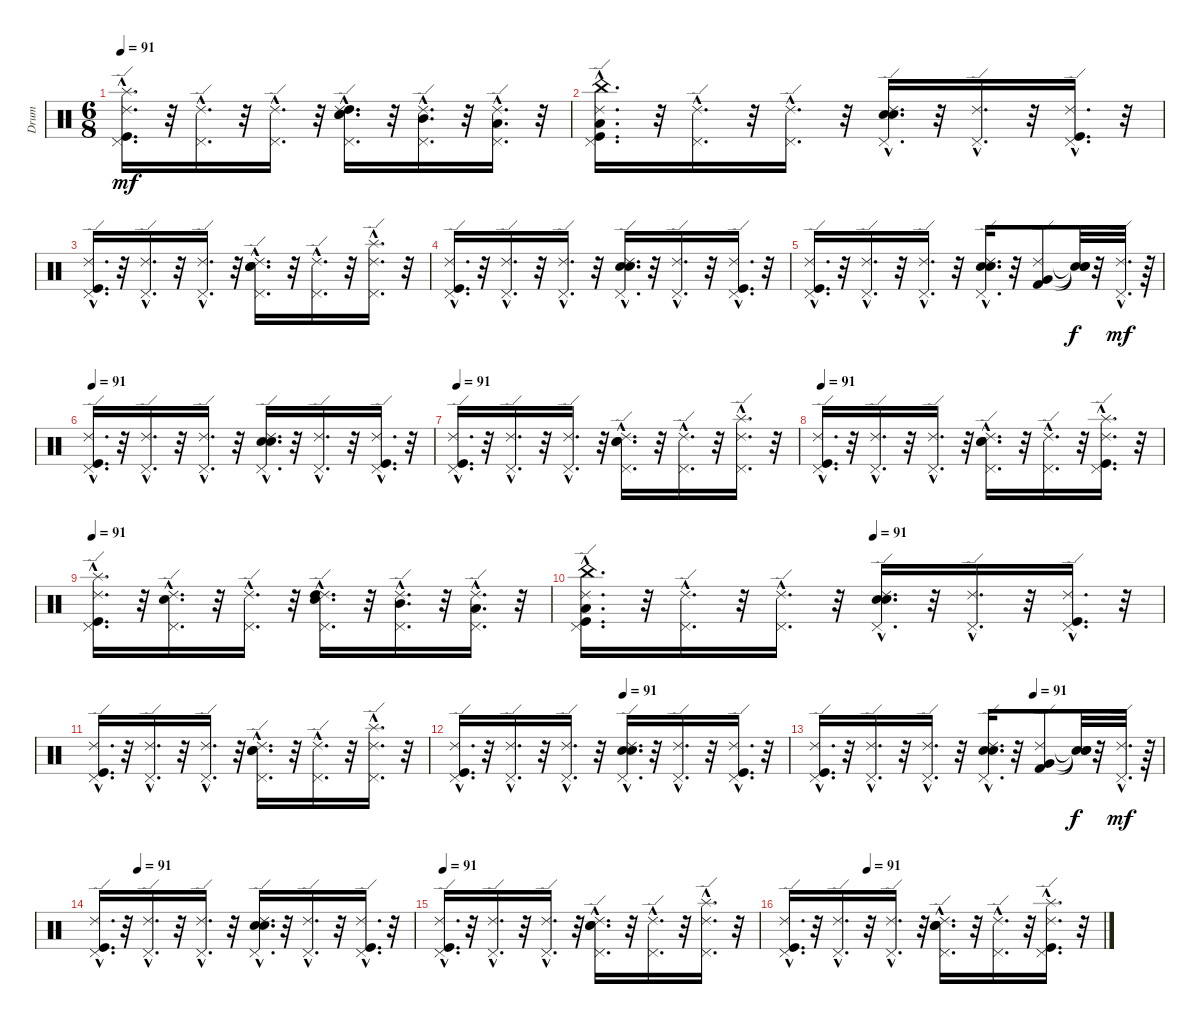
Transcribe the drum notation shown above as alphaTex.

\track ("Drum" "Drum") {instrument percussion}
\staff {score}
\articulation defaults
\ts (6 8)
\tempo 91
\clef neutral
\ks c
("Splash (hit)"{hac} "Ride (edge) 2"{hac} "Pedal Hi-Hat (hit)"{hac} "Kick (hit)"{hac}).16{d dy mf} r.32 ("Ride (edge) 2"{hac} "Pedal Hi-Hat (hit)"{hac}).16{d} r.32 ("Ride (edge) 2"{hac} "Pedal Hi-Hat (hit)"{hac}).16{d} r.32 ("High Tom (hit)"{hac} "Hand Clap (hit)"{hac} "Ride (edge) 2"{hac} "Snare (hit) 2"{hac} "Pedal Hi-Hat (hit)"{hac}).16{d} r.32 ("Mid Tom (hit)"{hac} "Ride (edge) 2"{hac} "Pedal Hi-Hat (hit)"{hac}).16{d} r.32 ("Low Tom (hit)"{hac} "Ride (edge) 2"{hac} "Pedal Hi-Hat (hit)"{hac}).16{d} r.32 |
("Low Floor Tom (hit)"{hac} "Kick (hit)"{hac} "Pedal Hi-Hat (hit)"{hac} "Ride (edge) 2"{hac} "China (hit)"{hac}).16{d} r.32 ("Pedal Hi-Hat (hit)"{hac} "Ride (edge) 2"{hac}).16{d} r.32 ("Pedal Hi-Hat (hit)"{hac} "Ride (edge) 2"{hac}).16{d} r.32 ("Pedal Hi-Hat (hit)"{hac} "Snare (hit) 2"{hac} "Ride (edge) 2"{hac} "Hand Clap (hit)"{hac}).16{d} r.32 ("Pedal Hi-Hat (hit)"{hac} "Ride (edge) 2"{hac}).16{d} r.32 ("Kick (hit)"{hac} "Pedal Hi-Hat (hit)"{hac} "Ride (edge) 2"{hac}).16{d} r.32 |
("Ride (edge) 2"{hac} "Pedal Hi-Hat (hit)"{hac} "Kick (hit)"{hac}).16{d} r.32 ("Ride (edge) 2"{hac} "Pedal Hi-Hat (hit)"{hac}).16{d} r.32 ("Ride (edge) 2"{hac} "Pedal Hi-Hat (hit)"{hac}).16{d} r.32 ("Hand Clap (hit)"{hac} "Ride (edge) 2"{hac} "Snare (hit) 2"{hac} "Pedal Hi-Hat (hit)"{hac}).16{d} r.32 ("Ride (edge) 2"{hac} "Pedal Hi-Hat (hit)"{hac}).16{d} r.32 ("Ride (edge) 2"{hac} "Pedal Hi-Hat (hit)"{hac} "Splash (hit)"{hac}).16{d} r.32 |
("Ride (edge) 2"{hac} "Pedal Hi-Hat (hit)"{hac} "Kick (hit)"{hac}).16{d} r.32 ("Ride (edge) 2"{hac} "Pedal Hi-Hat (hit)"{hac}).16{d} r.32 ("Ride (edge) 2"{hac} "Pedal Hi-Hat (hit)"{hac}).16{d} r.32 ("Hand Clap (hit)"{hac} "Ride (edge) 2"{hac} "Snare (hit) 2"{hac} "Pedal Hi-Hat (hit)"{hac}).16{d} r.32 ("Ride (edge) 2"{hac} "Pedal Hi-Hat (hit)"{hac}).16{d} r.32 ("Kick (hit)"{hac} "Ride (edge) 2"{hac} "Pedal Hi-Hat (hit)"{hac}).16{d} r.32 |
("Kick (hit)"{hac} "Pedal Hi-Hat (hit)"{hac} "Ride (edge) 2"{hac}).16{d} r.32 ("Pedal Hi-Hat (hit)"{hac} "Ride (edge) 2"{hac}).16{d} r.32 ("Pedal Hi-Hat (hit)"{hac} "Ride (edge) 2"{hac}).16{d} r.32 ("Snare (hit) 2"{hac} "Pedal Hi-Hat (hit)"{hac} "Hand Clap (hit)"{hac} "Ride (edge) 2"{hac}).16{d} r.32 ("Kick (hit) 2" "Very Low Tom (hit)" "Ride (edge) 2").8 ("Snare (hit)"{t} "Snare (hit)"{t} "Snare (hit)"{t}).32{dy f} r.32 ("Ride (edge) 2"{hac} "Pedal Hi-Hat (hit)"{hac}).32{d dy mf} r.64 |
\tempo 91
("Ride (edge) 2"{hac} "Pedal Hi-Hat (hit)"{hac} "Kick (hit)"{hac}).16{d} r.32 ("Ride (edge) 2"{hac} "Pedal Hi-Hat (hit)"{hac}).16{d} r.32 ("Ride (edge) 2"{hac} "Pedal Hi-Hat (hit)"{hac}).16{d} r.32 ("Hand Clap (hit)"{hac} "Ride (edge) 2"{hac} "Snare (hit) 2"{hac} "Pedal Hi-Hat (hit)"{hac}).16{d} r.32 ("Ride (edge) 2"{hac} "Pedal Hi-Hat (hit)"{hac}).16{d} r.32 ("Kick (hit)"{hac} "Ride (edge) 2"{hac} "Pedal Hi-Hat (hit)"{hac}).16{d} r.32 |
\tempo 91
("Kick (hit)"{hac} "Pedal Hi-Hat (hit)"{hac} "Ride (edge) 2"{hac}).16{d} r.32 ("Pedal Hi-Hat (hit)"{hac} "Ride (edge) 2"{hac}).16{d} r.32 ("Pedal Hi-Hat (hit)"{hac} "Ride (edge) 2"{hac}).16{d} r.32 ("Pedal Hi-Hat (hit)"{hac} "Snare (hit) 2"{hac} "Ride (edge) 2"{hac} "Hand Clap (hit)"{hac}).16{d} r.32 ("Pedal Hi-Hat (hit)"{hac} "Ride (edge) 2"{hac}).16{d} r.32 ("Splash (hit)"{hac} "Pedal Hi-Hat (hit)"{hac} "Ride (edge) 2"{hac}).16{d} r.32 |
\tempo 91
("Kick (hit)"{hac} "Ride (edge) 2"{hac} "Pedal Hi-Hat (hit)"{hac}).16{d} r.32 ("Ride (edge) 2"{hac} "Pedal Hi-Hat (hit)"{hac}).16{d} r.32 ("Ride (edge) 2"{hac} "Pedal Hi-Hat (hit)"{hac}).16{d} r.32 ("Snare (hit) 2"{hac} "Pedal Hi-Hat (hit)"{hac} "Hand Clap (hit)"{hac} "Ride (edge) 2"{hac}).16{d} r.32 ("Ride (edge) 2"{hac} "Pedal Hi-Hat (hit)"{hac}).16{d} r.32 ("Ride (edge) 2"{hac} "Kick (hit)"{hac} "Pedal Hi-Hat (hit)"{hac} "Splash (hit)"{hac}).16{d} r.32 |
\tempo 91
("Kick (hit)"{hac} "Splash (hit)"{hac} "Pedal Hi-Hat (hit)"{hac} "Ride (edge) 2"{hac}).16{d} r.32 ("Snare (hit) 2"{hac} "Pedal Hi-Hat (hit)"{hac} "Ride (edge) 2"{hac}).16{d} r.32 ("Pedal Hi-Hat (hit)"{hac} "Ride (edge) 2"{hac}).16{d} r.32 ("Snare (hit) 2"{hac} "Pedal Hi-Hat (hit)"{hac} "Ride (edge) 2"{hac} "High Tom (hit)"{hac}).16{d} r.32 ("Pedal Hi-Hat (hit)"{hac} "Ride (edge) 2"{hac} "Mid Tom (hit)"{hac}).16{d} r.32 ("Pedal Hi-Hat (hit)"{hac} "Ride (edge) 2"{hac} "Low Tom (hit)"{hac}).16{d} r.32 |
\tempo (91 0.5)
("China (hit)"{hac} "Ride (edge) 2"{hac} "Pedal Hi-Hat (hit)"{hac} "Kick (hit)"{hac} "Low Floor Tom (hit)"{hac}).16{d} r.32 ("Ride (edge) 2"{hac} "Pedal Hi-Hat (hit)"{hac}).16{d} r.32 ("Ride (edge) 2"{hac} "Pedal Hi-Hat (hit)"{hac}).16{d} r.32 ("Hand Clap (hit)"{hac} "Ride (edge) 2"{hac} "Snare (hit) 2"{hac} "Pedal Hi-Hat (hit)"{hac}).16{d} r.32 ("Ride (edge) 2"{hac} "Pedal Hi-Hat (hit)"{hac}).16{d} r.32 ("Kick (hit)"{hac} "Ride (edge) 2"{hac} "Pedal Hi-Hat (hit)"{hac}).16{d} r.32 |
("Pedal Hi-Hat (hit)"{hac} "Kick (hit)"{hac} "Ride (edge) 2"{hac}).16{d} r.32 ("Pedal Hi-Hat (hit)"{hac} "Ride (edge) 2"{hac}).16{d} r.32 ("Pedal Hi-Hat (hit)"{hac} "Ride (edge) 2"{hac}).16{d} r.32 ("Hand Clap (hit)"{hac} "Pedal Hi-Hat (hit)"{hac} "Ride (edge) 2"{hac} "Snare (hit) 2"{hac}).16{d} r.32 ("Ride (edge) 2"{hac} "Pedal Hi-Hat (hit)"{hac}).16{d} r.32 ("Splash (hit)"{hac} "Pedal Hi-Hat (hit)"{hac} "Ride (edge) 2"{hac}).16{d} r.32 |
\tempo (91 0.5)
("Pedal Hi-Hat (hit)"{hac} "Kick (hit)"{hac} "Ride (edge) 2"{hac}).16{d} r.32 ("Ride (edge) 2"{hac} "Pedal Hi-Hat (hit)"{hac}).16{d} r.32 ("Pedal Hi-Hat (hit)"{hac} "Ride (edge) 2"{hac}).16{d} r.32 ("Ride (edge) 2"{hac} "Snare (hit) 2"{hac} "Hand Clap (hit)"{hac} "Pedal Hi-Hat (hit)"{hac}).16{d} r.32 ("Pedal Hi-Hat (hit)"{hac} "Ride (edge) 2"{hac}).16{d} r.32 ("Ride (edge) 2"{hac} "Pedal Hi-Hat (hit)"{hac} "Kick (hit)"{hac}).16{d} r.32 |
\tempo (91 0.625)
("Kick (hit)"{hac} "Pedal Hi-Hat (hit)"{hac} "Ride (edge) 2"{hac}).16{d} r.32 ("Pedal Hi-Hat (hit)"{hac} "Ride (edge) 2"{hac}).16{d} r.32 ("Pedal Hi-Hat (hit)"{hac} "Ride (edge) 2"{hac}).16{d} r.32 ("Snare (hit) 2"{hac} "Pedal Hi-Hat (hit)"{hac} "Hand Clap (hit)"{hac} "Ride (edge) 2"{hac}).16{d} r.32 ("Kick (hit) 2" "Very Low Tom (hit)" "Ride (edge) 2").8 ("Snare (hit)"{t} "Snare (hit)"{t} "Snare (hit)"{t}).32{dy f} r.32 ("Ride (edge) 2"{hac} "Pedal Hi-Hat (hit)"{hac}).32{d dy mf} r.64 |
\tempo (91 0.125)
("Kick (hit)"{hac} "Pedal Hi-Hat (hit)"{hac} "Ride (edge) 2"{hac}).16{d} r.32 ("Pedal Hi-Hat (hit)"{hac} "Ride (edge) 2"{hac}).16{d} r.32 ("Pedal Hi-Hat (hit)"{hac} "Ride (edge) 2"{hac}).16{d} r.32 ("Pedal Hi-Hat (hit)"{hac} "Snare (hit) 2"{hac} "Ride (edge) 2"{hac} "Hand Clap (hit)"{hac}).16{d} r.32 ("Pedal Hi-Hat (hit)"{hac} "Ride (edge) 2"{hac}).16{d} r.32 ("Kick (hit)"{hac} "Pedal Hi-Hat (hit)"{hac} "Ride (edge) 2"{hac}).16{d} r.32 |
\tempo 91
("Ride (edge) 2"{hac} "Pedal Hi-Hat (hit)"{hac} "Kick (hit)"{hac}).16{d} r.32 ("Ride (edge) 2"{hac} "Pedal Hi-Hat (hit)"{hac}).16{d} r.32 ("Ride (edge) 2"{hac} "Pedal Hi-Hat (hit)"{hac}).16{d} r.32 ("Hand Clap (hit)"{hac} "Ride (edge) 2"{hac} "Snare (hit) 2"{hac} "Pedal Hi-Hat (hit)"{hac}).16{d} r.32 ("Ride (edge) 2"{hac} "Pedal Hi-Hat (hit)"{hac}).16{d} r.32 ("Ride (edge) 2"{hac} "Pedal Hi-Hat (hit)"{hac} "Splash (hit)"{hac}).16{d} r.32 |
\tempo (91 0.25)
("Ride (edge) 2"{hac} "Pedal Hi-Hat (hit)"{hac} "Kick (hit)"{hac}).16{d} r.32 ("Ride (edge) 2"{hac} "Pedal Hi-Hat (hit)"{hac}).16{d} r.32 ("Ride (edge) 2"{hac} "Pedal Hi-Hat (hit)"{hac}).16{d} r.32 ("Hand Clap (hit)"{hac} "Ride (edge) 2"{hac} "Snare (hit) 2"{hac} "Pedal Hi-Hat (hit)"{hac}).16{d} r.32 ("Ride (edge) 2"{hac} "Pedal Hi-Hat (hit)"{hac}).16{d} r.32 ("Kick (hit)"{hac} "Splash (hit)"{hac} "Ride (edge) 2"{hac} "Pedal Hi-Hat (hit)"{hac}).16{d} r.32
